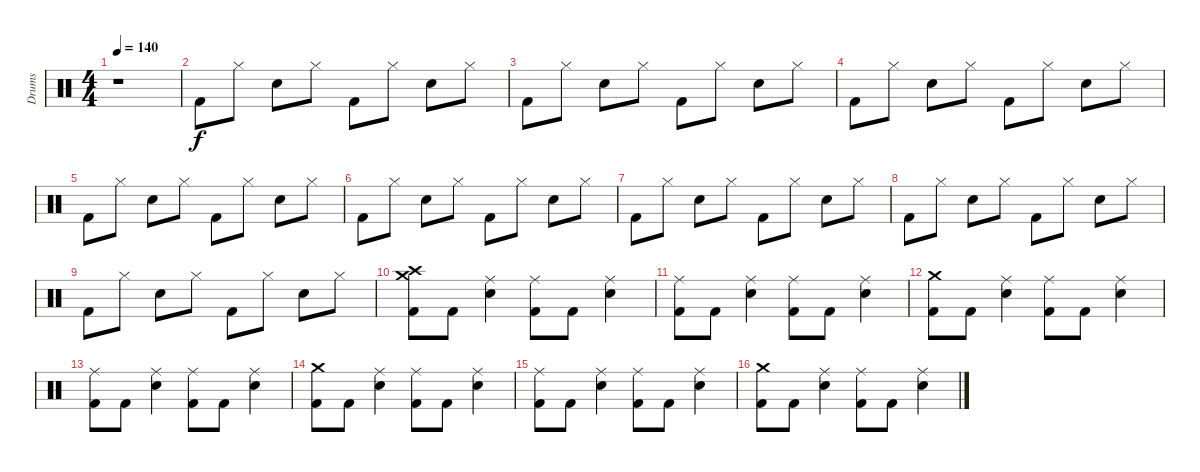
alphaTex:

\track ("Drums" "Drums") {instrument percussion}
\staff {score}
\articulation defaults
\ts (4 4)
\tempo 140
\clef neutral
\ks c
r.1{dy f} |
"Kick (hit) 2".8 "Hi-Hat (closed)".8 "Snare (hit) 2".8 "Hi-Hat (closed)".8 "Kick (hit) 2".8 "Hi-Hat (closed)".8 "Snare (hit) 2".8 "Hi-Hat (closed)".8 |
"Kick (hit) 2".8 "Hi-Hat (closed)".8 "Snare (hit) 2".8 "Hi-Hat (closed)".8 "Kick (hit) 2".8 "Hi-Hat (closed)".8 "Snare (hit) 2".8 "Hi-Hat (closed)".8 |
"Kick (hit) 2".8 "Hi-Hat (closed)".8 "Snare (hit) 2".8 "Hi-Hat (closed)".8 "Kick (hit) 2".8 "Hi-Hat (closed)".8 "Snare (hit) 2".8 "Hi-Hat (closed)".8 |
"Kick (hit) 2".8 "Hi-Hat (closed)".8 "Snare (hit) 2".8 "Hi-Hat (closed)".8 "Kick (hit) 2".8 "Hi-Hat (closed)".8 "Snare (hit) 2".8 "Hi-Hat (closed)".8 |
"Kick (hit) 2".8 "Hi-Hat (closed)".8 "Snare (hit) 2".8 "Hi-Hat (closed)".8 "Kick (hit) 2".8 "Hi-Hat (closed)".8 "Snare (hit) 2".8 "Hi-Hat (closed)".8 |
"Kick (hit) 2".8 "Hi-Hat (closed)".8 "Snare (hit) 2".8 "Hi-Hat (closed)".8 "Kick (hit) 2".8 "Hi-Hat (closed)".8 "Snare (hit) 2".8 "Hi-Hat (closed)".8 |
"Kick (hit) 2".8 "Hi-Hat (closed)".8 "Snare (hit) 2".8 "Hi-Hat (closed)".8 "Kick (hit) 2".8 "Hi-Hat (closed)".8 "Snare (hit) 2".8 "Hi-Hat (closed)".8 |
"Kick (hit) 2".8 "Hi-Hat (closed)".8 "Snare (hit) 2".8 "Hi-Hat (closed)".8 "Kick (hit) 2".8 "Hi-Hat (closed)".8 "Snare (hit) 2".8 "Hi-Hat (closed)".8 |
("Kick (hit) 2" "Crash high (hit)" "Crash medium (hit)").8 "Kick (hit) 2".8 ("Electric Snare (hit)" "Ride (middle)").4 ("Kick (hit) 2" "Ride (middle)").8 "Kick (hit) 2".8 ("Electric Snare (hit)" "Ride (middle)").4 |
("Kick (hit) 2" "Ride (middle)").8 "Kick (hit) 2".8 ("Electric Snare (hit)" "Ride (middle)").4 ("Kick (hit) 2" "Ride (middle)").8 "Kick (hit) 2".8 ("Electric Snare (hit)" "Ride (middle)").4 |
("Kick (hit) 2" "Crash medium (hit)").8 "Kick (hit) 2".8 ("Electric Snare (hit)" "Ride (middle)").4 ("Kick (hit) 2" "Ride (middle)").8 "Kick (hit) 2".8 ("Electric Snare (hit)" "Ride (middle)").4 |
("Kick (hit) 2" "Ride (middle)").8 "Kick (hit) 2".8 ("Electric Snare (hit)" "Ride (middle)").4 ("Kick (hit) 2" "Ride (middle)").8 "Kick (hit) 2".8 ("Electric Snare (hit)" "Ride (middle)").4 |
("Kick (hit) 2" "Crash medium (hit)").8 "Kick (hit) 2".8 ("Electric Snare (hit)" "Ride (middle)").4 ("Kick (hit) 2" "Ride (middle)").8 "Kick (hit) 2".8 ("Electric Snare (hit)" "Ride (middle)").4 |
("Kick (hit) 2" "Ride (middle)").8 "Kick (hit) 2".8 ("Electric Snare (hit)" "Ride (middle)").4 ("Kick (hit) 2" "Ride (middle)").8 "Kick (hit) 2".8 ("Electric Snare (hit)" "Ride (middle)").4 |
("Kick (hit) 2" "Crash medium (hit)").8 "Kick (hit) 2".8 ("Electric Snare (hit)" "Ride (middle)").4 ("Kick (hit) 2" "Ride (middle)").8 "Kick (hit) 2".8 ("Electric Snare (hit)" "Ride (middle)").4
